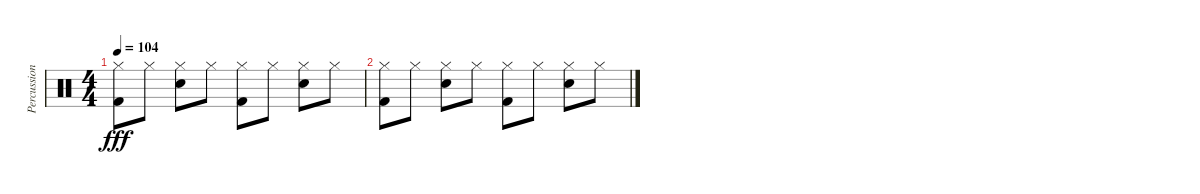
\track ("Percussions" "Percussion") {instrument percussion}
\staff {score}
\articulation defaults
\ts (4 4)
\tempo 104
\clef neutral
\ks c
("Kick (hit) 2" "Hi-Hat (closed)").8{dy fff} "Hi-Hat (closed)".8 ("Snare (hit) 2" "Hi-Hat (closed)").8 "Hi-Hat (closed)".8 ("Hi-Hat (closed)" "Kick (hit) 2").8 "Hi-Hat (closed)".8 ("Hi-Hat (closed)" "Snare (hit) 2").8 "Hi-Hat (closed)".8 |
("Kick (hit) 2" "Hi-Hat (closed)").8 "Hi-Hat (closed)".8 ("Snare (hit) 2" "Hi-Hat (closed)").8 "Hi-Hat (closed)".8 ("Hi-Hat (closed)" "Kick (hit) 2").8 "Hi-Hat (closed)".8 ("Hi-Hat (closed)" "Snare (hit) 2").8 "Hi-Hat (closed)".8
